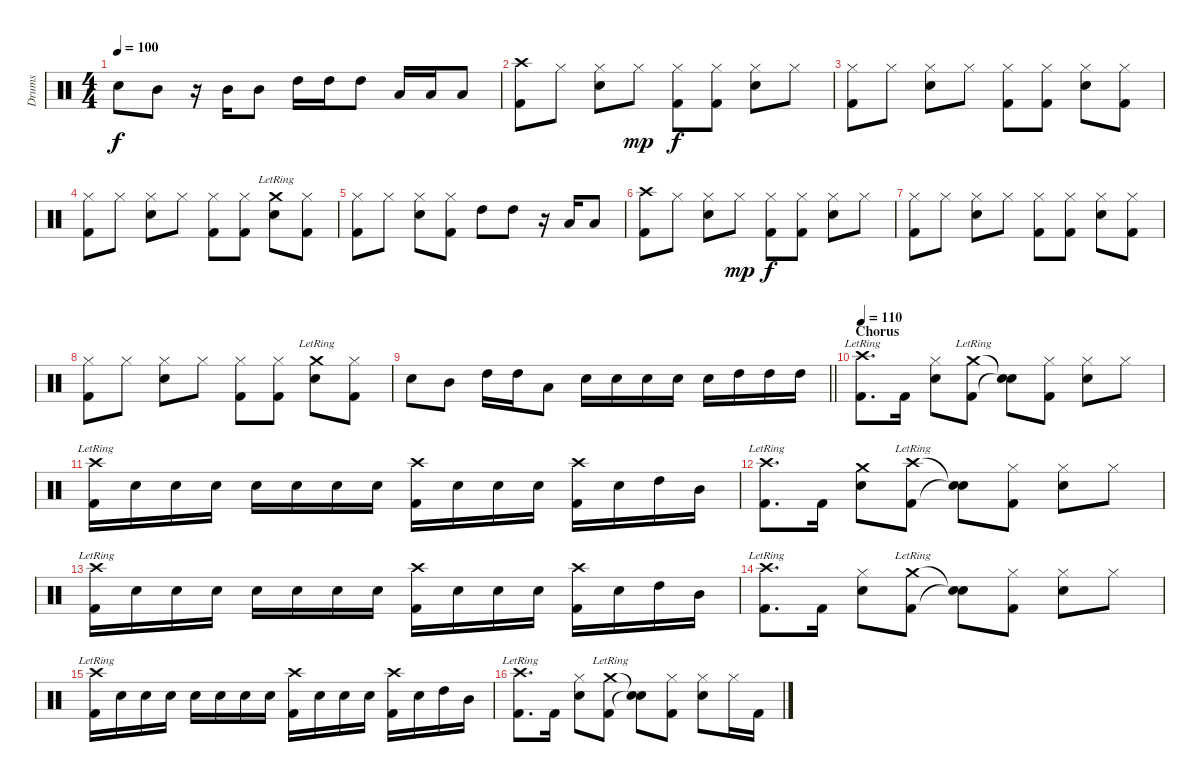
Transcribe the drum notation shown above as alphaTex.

\track ("Drums" "Drums") {instrument percussion}
\staff {score}
\articulation defaults
\ts (4 4)
\tempo 100
\clef neutral
\ks c "Snare (hit) 2".8{dy f} "Mid Tom (hit)".8
r.16 "Mid Tom (hit)".16 "Mid Tom (hit)".8 "High Tom (hit)".16 "High Tom (hit)".16 "High Tom (hit)".8 "Low Tom (hit)".16 "Low Tom (hit)".16 "Low Tom (hit)".8 |
("Crash high (hit)" "Kick (hit) 2").8 "Hi-Hat (closed)".8 ("Hi-Hat (closed)" "Snare (hit) 2").8 "Hi-Hat (closed)".8{dy mp} ("Hi-Hat (closed)" "Kick (hit) 2").8{dy f} ("Hi-Hat (closed)" "Kick (hit) 2").8 ("Hi-Hat (closed)" "Snare (hit) 2").8 "Hi-Hat (closed)".8 |
("Hi-Hat (closed)" "Kick (hit) 2").8 "Hi-Hat (closed)".8 ("Hi-Hat (closed)" "Snare (hit) 2").8 "Hi-Hat (closed)".8 ("Hi-Hat (closed)" "Kick (hit) 2").8 ("Hi-Hat (closed)" "Kick (hit) 2").8 ("Hi-Hat (closed)" "Snare (hit) 2").8 ("Hi-Hat (closed)" "Kick (hit) 2").8 |
("Hi-Hat (closed)" "Kick (hit) 2").8 "Hi-Hat (closed)".8 ("Hi-Hat (closed)" "Snare (hit) 2").8 "Hi-Hat (closed)".8 ("Hi-Hat (closed)" "Kick (hit) 2").8 ("Hi-Hat (closed)" "Kick (hit) 2").8 ("Crash medium (hit)"{lr} "Snare (hit) 2").8 ("Hi-Hat (closed)" "Kick (hit) 2").8 |
("Hi-Hat (closed)" "Kick (hit) 2").8 "Hi-Hat (closed)".8 ("Hi-Hat (closed)" "Snare (hit) 2").8 ("Hi-Hat (closed)" "Kick (hit) 2").8 "High Tom (hit)".8 "High Tom (hit)".8 r.16 "Low Tom (hit)".16 "Low Tom (hit)".8 |
("Crash high (hit)" "Kick (hit) 2").8 "Hi-Hat (closed)".8 ("Hi-Hat (closed)" "Snare (hit) 2").8 "Hi-Hat (closed)".8{dy mp} ("Hi-Hat (closed)" "Kick (hit) 2").8{dy f} ("Hi-Hat (closed)" "Kick (hit) 2").8 ("Hi-Hat (closed)" "Snare (hit) 2").8 "Hi-Hat (closed)".8 |
("Hi-Hat (closed)" "Kick (hit) 2").8 "Hi-Hat (closed)".8 ("Hi-Hat (closed)" "Snare (hit) 2").8 "Hi-Hat (closed)".8 ("Hi-Hat (closed)" "Kick (hit) 2").8 ("Hi-Hat (closed)" "Kick (hit) 2").8 ("Hi-Hat (closed)" "Snare (hit) 2").8 ("Hi-Hat (closed)" "Kick (hit) 2").8 |
("Hi-Hat (closed)" "Kick (hit) 2").8 "Hi-Hat (closed)".8 ("Hi-Hat (closed)" "Snare (hit) 2").8 "Hi-Hat (closed)".8 ("Hi-Hat (closed)" "Kick (hit) 2").8 ("Hi-Hat (closed)" "Kick (hit) 2").8 ("Crash medium (hit)"{lr} "Snare (hit) 2").8 ("Hi-Hat (closed)" "Kick (hit) 2").8 |
\barLineRight lightlight "Snare (hit) 2".8 "Mid Tom (hit)".8 "High Tom (hit)".16 "High Tom (hit)".16 "Low Tom (hit)".8 "Snare (hit) 2".16 "Snare (hit) 2".16 "Snare (hit) 2".16 "Snare (hit) 2".16 "Snare (hit) 2".16 "High Tom (hit)".16 "High Tom (hit)".16 "High Tom (hit)".16
|
\section ("" "Chorus")
\tempo 110
("Crash high (hit)"{lr} "Kick (hit) 2").8{d} "Kick (hit) 2".16 ("Hi-Hat (closed)" "Snare (hit) 2").8 ("Crash medium (hit)"{lr} "Kick (hit) 2").8 ("Snare (hit)"{t} "Snare (hit)"{t}).8 ("Hi-Hat (closed)" "Kick (hit) 2").8 ("Hi-Hat (closed)" "Snare (hit) 2").8 "Hi-Hat (closed)".8 |
("Crash high (hit)"{lr} "Kick (hit) 2").16 "Snare (hit) 2".16 "Snare (hit) 2".16 "Snare (hit) 2".16 "Snare (hit) 2".16 "Snare (hit) 2".16 "Snare (hit) 2".16 "Snare (hit) 2".16 ("Crash high (hit)" "Kick (hit) 2").16 "Snare (hit) 2".16 "Snare (hit) 2".16 "Snare (hit) 2".16 ("Crash high (hit)" "Kick (hit) 2").16 "Snare (hit) 2".16 "High Tom (hit)".16 "Mid Tom (hit)".16 |
("Crash high (hit)"{lr} "Kick (hit) 2").8{d} "Kick (hit) 2".16 ("Crash medium (hit)" "Snare (hit) 2").8 ("Crash high (hit)"{lr} "Kick (hit) 2").8 ("Snare (hit)"{t} "Snare (hit)"{t}).8 ("Hi-Hat (closed)" "Kick (hit) 2").8 ("Hi-Hat (closed)" "Snare (hit) 2").8 "Hi-Hat (closed)".8 |
("Crash high (hit)"{lr} "Kick (hit) 2").16 "Snare (hit) 2".16 "Snare (hit) 2".16 "Snare (hit) 2".16 "Snare (hit) 2".16 "Snare (hit) 2".16 "Snare (hit) 2".16 "Snare (hit) 2".16 ("Crash high (hit)" "Kick (hit) 2").16 "Snare (hit) 2".16 "Snare (hit) 2".16 "Snare (hit) 2".16 ("Crash high (hit)" "Kick (hit) 2").16 "Snare (hit) 2".16 "High Tom (hit)".16 "Mid Tom (hit)".16 |
("Crash high (hit)"{lr} "Kick (hit) 2").8{d} "Kick (hit) 2".16 ("Hi-Hat (closed)" "Snare (hit) 2").8 ("Crash medium (hit)"{lr} "Kick (hit) 2").8 ("Snare (hit)"{t} "Snare (hit)"{t}).8 ("Hi-Hat (closed)" "Kick (hit) 2").8 ("Hi-Hat (closed)" "Snare (hit) 2").8 "Hi-Hat (closed)".8 |
("Crash high (hit)"{lr} "Kick (hit) 2").16 "Snare (hit) 2".16 "Snare (hit) 2".16 "Snare (hit) 2".16 "Snare (hit) 2".16 "Snare (hit) 2".16 "Snare (hit) 2".16 "Snare (hit) 2".16 ("Crash high (hit)" "Kick (hit) 2").16 "Snare (hit) 2".16 "Snare (hit) 2".16 "Snare (hit) 2".16 ("Crash high (hit)" "Kick (hit) 2").16 "Snare (hit) 2".16 "High Tom (hit)".16 "Mid Tom (hit)".16 |
("Crash high (hit)"{lr} "Kick (hit) 2").8{d} "Kick (hit) 2".16 ("Hi-Hat (closed)" "Snare (hit) 2").8 ("Crash medium (hit)"{lr} "Kick (hit) 2").8 ("Snare (hit)"{t} "Snare (hit)"{t}).8 ("Hi-Hat (closed)" "Kick (hit) 2").8 ("Hi-Hat (closed)" "Snare (hit) 2").8 "Hi-Hat (closed)".16 "Kick (hit) 2".16
